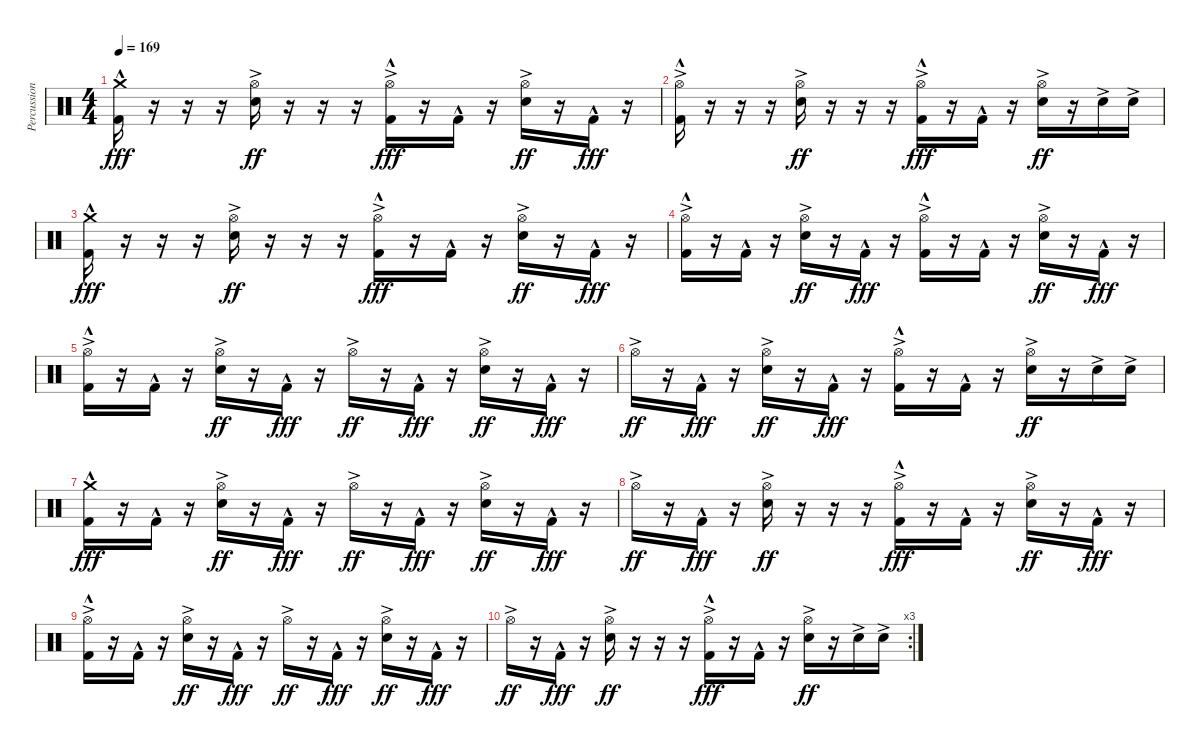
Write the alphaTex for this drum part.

\track ("Percussion" "Percussion") {instrument percussion}
\staff {score}
\articulation defaults
\ts (4 4)
\tempo 169
\clef neutral
\ks c
("Crash medium (hit)"{hac} "Kick (hit) 2"{hac}).16{dy fff} r.16 r.16 r.16 ("Hi-Hat (open)"{ac} "Snare (hit) 2"{ac}).16{dy ff} r.16 r.16 r.16 ("Hi-Hat (open)"{ac} "Kick (hit) 2"{hac}).16{dy fff} r.16 "Kick (hit) 2"{hac}.16 r.16 ("Hi-Hat (open)"{ac} "Snare (hit) 2"{ac}).16{dy ff} r.16 "Kick (hit) 2"{hac}.16{dy fff} r.16 |
("Hi-Hat (open)"{ac} "Kick (hit) 2"{hac}).16 r.16 r.16 r.16 ("Hi-Hat (open)"{ac} "Snare (hit) 2"{ac}).16{dy ff} r.16 r.16 r.16 ("Hi-Hat (open)"{ac} "Kick (hit) 2"{hac}).16{dy fff} r.16 "Kick (hit) 2"{hac}.16 r.16 ("Hi-Hat (open)"{ac} "Snare (hit) 2"{ac}).16{dy ff} r.16 "Snare (hit) 2"{ac}.16 "Snare (hit) 2"{ac}.16 |
("Crash medium (hit)"{hac} "Kick (hit) 2"{hac}).16{dy fff} r.16 r.16 r.16 ("Hi-Hat (open)"{ac} "Snare (hit) 2"{ac}).16{dy ff} r.16 r.16 r.16 ("Hi-Hat (open)"{ac} "Kick (hit) 2"{hac}).16{dy fff} r.16 "Kick (hit) 2"{hac}.16 r.16 ("Hi-Hat (open)"{ac} "Snare (hit) 2"{ac}).16{dy ff} r.16 "Kick (hit) 2"{hac}.16{dy fff} r.16 |
("Hi-Hat (open)"{ac} "Kick (hit) 2"{hac}).16 r.16 "Kick (hit) 2"{hac}.16 r.16 ("Hi-Hat (open)"{ac} "Snare (hit) 2"{ac}).16{dy ff} r.16 "Kick (hit) 2"{hac}.16{dy fff} r.16 ("Hi-Hat (open)"{ac} "Kick (hit) 2"{hac}).16 r.16 "Kick (hit) 2"{hac}.16 r.16 ("Hi-Hat (open)"{ac} "Snare (hit) 2"{ac}).16{dy ff} r.16 "Kick (hit) 2"{hac}.16{dy fff} r.16 |
("Hi-Hat (open)"{ac} "Kick (hit) 2"{hac}).16 r.16 "Kick (hit) 2"{hac}.16 r.16 ("Hi-Hat (open)"{ac} "Snare (hit) 2"{ac}).16{dy ff} r.16 "Kick (hit) 2"{hac}.16{dy fff} r.16 "Hi-Hat (open)"{ac}.16{dy ff} r.16 "Kick (hit) 2"{hac}.16{dy fff} r.16 ("Hi-Hat (open)"{ac} "Snare (hit) 2"{ac}).16{dy ff} r.16 "Kick (hit) 2"{hac}.16{dy fff} r.16 |
"Hi-Hat (open)"{ac}.16{dy ff} r.16 "Kick (hit) 2"{hac}.16{dy fff} r.16 ("Hi-Hat (open)"{ac} "Snare (hit) 2"{ac}).16{dy ff} r.16 "Kick (hit) 2"{hac}.16{dy fff} r.16 ("Hi-Hat (open)"{ac} "Kick (hit) 2"{hac}).16 r.16 "Kick (hit) 2"{hac}.16 r.16 ("Hi-Hat (open)"{ac} "Snare (hit) 2"{ac}).16{dy ff} r.16 "Snare (hit) 2"{ac}.16 "Snare (hit) 2"{ac}.16 |
("Crash medium (hit)"{hac} "Kick (hit) 2"{hac}).16{dy fff} r.16 "Kick (hit) 2"{hac}.16 r.16 ("Hi-Hat (open)"{ac} "Snare (hit) 2"{ac}).16{dy ff} r.16 "Kick (hit) 2"{hac}.16{dy fff} r.16 "Hi-Hat (open)"{ac}.16{dy ff} r.16 "Kick (hit) 2"{hac}.16{dy fff} r.16 ("Hi-Hat (open)"{ac} "Snare (hit) 2"{ac}).16{dy ff} r.16 "Kick (hit) 2"{hac}.16{dy fff} r.16 |
"Hi-Hat (open)"{ac}.16{dy ff} r.16 "Kick (hit) 2"{hac}.16{dy fff} r.16 ("Hi-Hat (open)"{ac} "Snare (hit) 2"{ac}).16{dy ff} r.16 r.16 r.16 ("Hi-Hat (open)"{ac} "Kick (hit) 2"{hac}).16{dy fff} r.16 "Kick (hit) 2"{hac}.16 r.16 ("Hi-Hat (open)"{ac} "Snare (hit) 2"{ac}).16{dy ff} r.16 "Kick (hit) 2"{hac}.16{dy fff} r.16 |
("Hi-Hat (open)"{ac} "Kick (hit) 2"{hac}).16 r.16 "Kick (hit) 2"{hac}.16 r.16 ("Hi-Hat (open)"{ac} "Snare (hit) 2"{ac}).16{dy ff} r.16 "Kick (hit) 2"{hac}.16{dy fff} r.16 "Hi-Hat (open)"{ac}.16{dy ff} r.16 "Kick (hit) 2"{hac}.16{dy fff} r.16 ("Hi-Hat (open)"{ac} "Snare (hit) 2"{ac}).16{dy ff} r.16 "Kick (hit) 2"{hac}.16{dy fff} r.16 |
\rc 3 "Hi-Hat (open)"{ac}.16{dy ff}
r.16 "Kick (hit) 2"{hac}.16{dy fff} r.16 ("Hi-Hat (open)"{ac} "Snare (hit) 2"{ac}).16{dy ff} r.16 r.16 r.16 ("Hi-Hat (open)"{ac} "Kick (hit) 2"{hac}).16{dy fff} r.16 "Kick (hit) 2"{hac}.16 r.16 ("Hi-Hat (open)"{ac} "Snare (hit) 2"{ac}).16{dy ff} r.16 "Snare (hit) 2"{ac}.16 "Snare (hit) 2"{ac}.16
